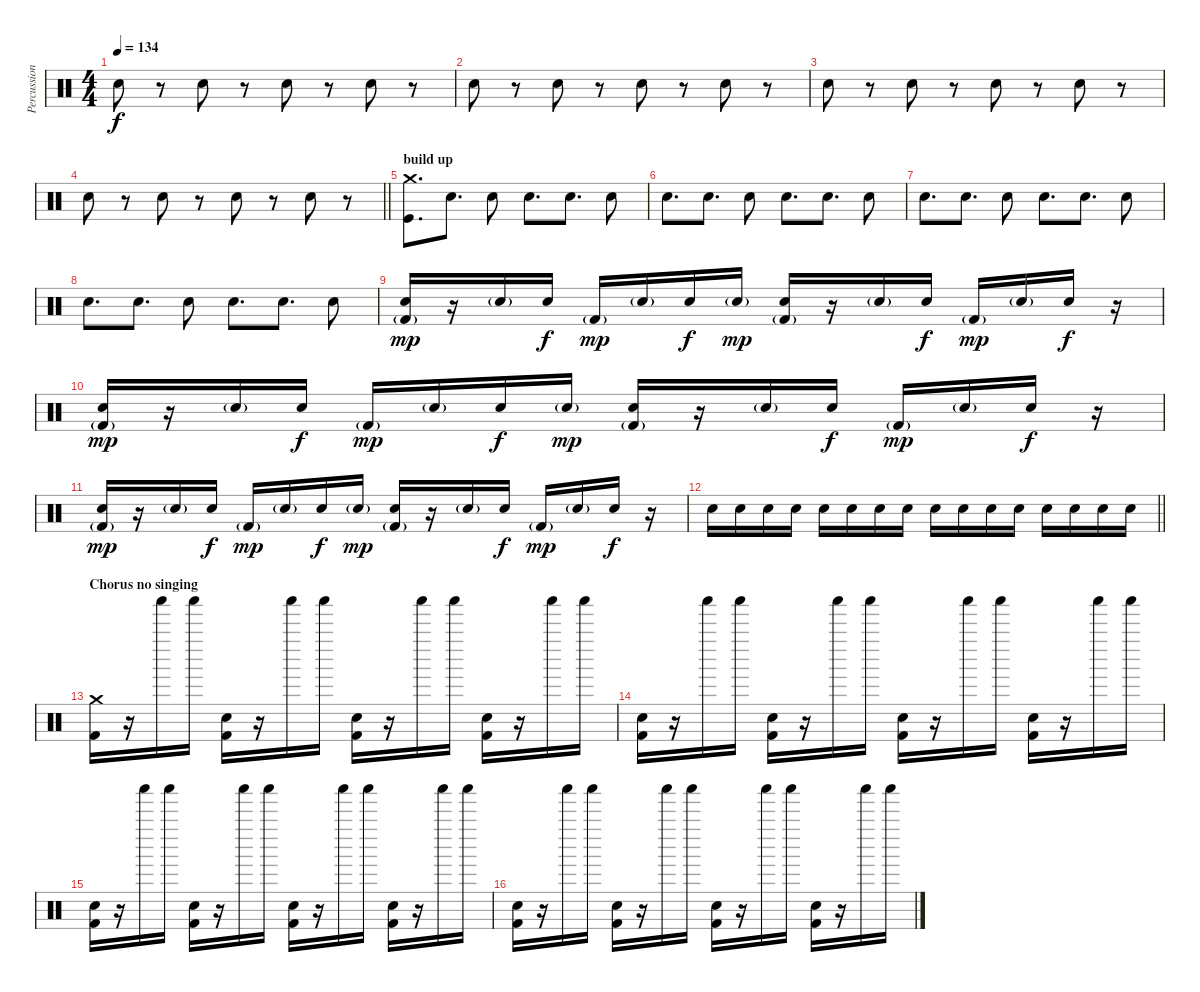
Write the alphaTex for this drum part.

\track ("Percussion" "Percussion") {instrument percussion}
\staff {score}
\articulation defaults
\ts (4 4)
\tempo 134
\clef neutral
\ks c "Hand Clap (hit)".8{dy f}
r.8 "Hand Clap (hit)".8 r.8 "Hand Clap (hit)".8 r.8 "Hand Clap (hit)".8 r.8 |
"Hand Clap (hit)".8 r.8 "Hand Clap (hit)".8 r.8 "Hand Clap (hit)".8 r.8 "Hand Clap (hit)".8 r.8 |
"Hand Clap (hit)".8 r.8 "Hand Clap (hit)".8 r.8 "Hand Clap (hit)".8 r.8 "Hand Clap (hit)".8 r.8 |
\barLineRight lightlight "Hand Clap (hit)".8
r.8 "Hand Clap (hit)".8 r.8 "Hand Clap (hit)".8 r.8 "Hand Clap (hit)".8 r.8 |
\section ("" "build up")
("Crash medium (hit)" "Kick (hit)").8{d} "Electric Snare (hit)".8{d} "Electric Snare (hit)".8 "Electric Snare (hit)".8{d} "Electric Snare (hit)".8{d} "Electric Snare (hit)".8 |
"Electric Snare (hit)".8{d} "Electric Snare (hit)".8{d} "Electric Snare (hit)".8 "Electric Snare (hit)".8{d} "Electric Snare (hit)".8{d} "Electric Snare (hit)".8 |
"Electric Snare (hit)".8{d} "Electric Snare (hit)".8{d} "Electric Snare (hit)".8 "Electric Snare (hit)".8{d} "Electric Snare (hit)".8{d} "Electric Snare (hit)".8 |
"Electric Snare (hit)".8{d} "Electric Snare (hit)".8{d} "Electric Snare (hit)".8 "Electric Snare (hit)".8{d} "Electric Snare (hit)".8{d} "Electric Snare (hit)".8 |
("Kick (hit) 2"{g} "Electric Snare (hit)").16{dy mp} r.16 "Electric Snare (hit)"{g}.16 "Electric Snare (hit)".16{dy f} "Kick (hit) 2"{g}.16{dy mp} "Electric Snare (hit)"{g}.16 "Electric Snare (hit)".16{dy f} "Electric Snare (hit)"{g}.16{dy mp} ("Kick (hit) 2"{g} "Electric Snare (hit)").16 r.16 "Electric Snare (hit)"{g}.16 "Electric Snare (hit)".16{dy f} "Kick (hit) 2"{g}.16{dy mp} "Electric Snare (hit)"{g}.16 "Electric Snare (hit)".16{dy f} r.16 |
("Kick (hit) 2"{g} "Electric Snare (hit)").16{dy mp} r.16 "Electric Snare (hit)"{g}.16 "Electric Snare (hit)".16{dy f} "Kick (hit) 2"{g}.16{dy mp} "Electric Snare (hit)"{g}.16 "Electric Snare (hit)".16{dy f} "Electric Snare (hit)"{g}.16{dy mp} ("Kick (hit) 2"{g} "Electric Snare (hit)").16 r.16 "Electric Snare (hit)"{g}.16 "Electric Snare (hit)".16{dy f} "Kick (hit) 2"{g}.16{dy mp} "Electric Snare (hit)"{g}.16 "Electric Snare (hit)".16{dy f} r.16 |
("Kick (hit) 2"{g} "Electric Snare (hit)").16{dy mp} r.16 "Electric Snare (hit)"{g}.16 "Electric Snare (hit)".16{dy f} "Kick (hit) 2"{g}.16{dy mp} "Electric Snare (hit)"{g}.16 "Electric Snare (hit)".16{dy f} "Electric Snare (hit)"{g}.16{dy mp} ("Kick (hit) 2"{g} "Electric Snare (hit)").16 r.16 "Electric Snare (hit)"{g}.16 "Electric Snare (hit)".16{dy f} "Kick (hit) 2"{g}.16{dy mp} "Electric Snare (hit)"{g}.16 "Electric Snare (hit)".16{dy f} r.16 |
\barLineRight lightlight "Electric Snare (hit)".16 "Electric Snare (hit)".16 "Electric Snare (hit)".16 "Electric Snare (hit)".16 "Electric Snare (hit)".16 "Electric Snare (hit)".16 "Electric Snare (hit)".16 "Electric Snare (hit)".16 "Electric Snare (hit)".16 "Electric Snare (hit)".16 "Electric Snare (hit)".16 "Electric Snare (hit)".16 "Electric Snare (hit)".16 "Electric Snare (hit)".16 "Electric Snare (hit)".16 "Electric Snare (hit)".16
|
\section ("" "Chorus no singing")
("Crash medium (hit)" "Kick (hit) 2").16 r.16 "Shaker (hit)".16 "Shaker (hit)".16 ("Hand Clap (hit)" "Kick (hit) 2").16 r.16 "Shaker (hit)".16 "Shaker (hit)".16 ("Hand Clap (hit)" "Kick (hit) 2").16 r.16 "Shaker (hit)".16 "Shaker (hit)".16 ("Hand Clap (hit)" "Kick (hit) 2").16 r.16 "Shaker (hit)".16 "Shaker (hit)".16 |
("Hand Clap (hit)" "Kick (hit) 2").16 r.16 "Shaker (hit)".16 "Shaker (hit)".16 ("Hand Clap (hit)" "Kick (hit) 2").16 r.16 "Shaker (hit)".16 "Shaker (hit)".16 ("Hand Clap (hit)" "Kick (hit) 2").16 r.16 "Shaker (hit)".16 "Shaker (hit)".16 ("Hand Clap (hit)" "Kick (hit) 2").16 r.16 "Shaker (hit)".16 "Shaker (hit)".16 |
("Hand Clap (hit)" "Kick (hit) 2").16 r.16 "Shaker (hit)".16 "Shaker (hit)".16 ("Hand Clap (hit)" "Kick (hit) 2").16 r.16 "Shaker (hit)".16 "Shaker (hit)".16 ("Hand Clap (hit)" "Kick (hit) 2").16 r.16 "Shaker (hit)".16 "Shaker (hit)".16 ("Hand Clap (hit)" "Kick (hit) 2").16 r.16 "Shaker (hit)".16 "Shaker (hit)".16 |
("Hand Clap (hit)" "Kick (hit) 2").16 r.16 "Shaker (hit)".16 "Shaker (hit)".16 ("Hand Clap (hit)" "Kick (hit) 2").16 r.16 "Shaker (hit)".16 "Shaker (hit)".16 ("Hand Clap (hit)" "Kick (hit) 2").16 r.16 "Shaker (hit)".16 "Shaker (hit)".16 ("Hand Clap (hit)" "Kick (hit) 2").16 r.16 "Shaker (hit)".16 "Shaker (hit)".16
